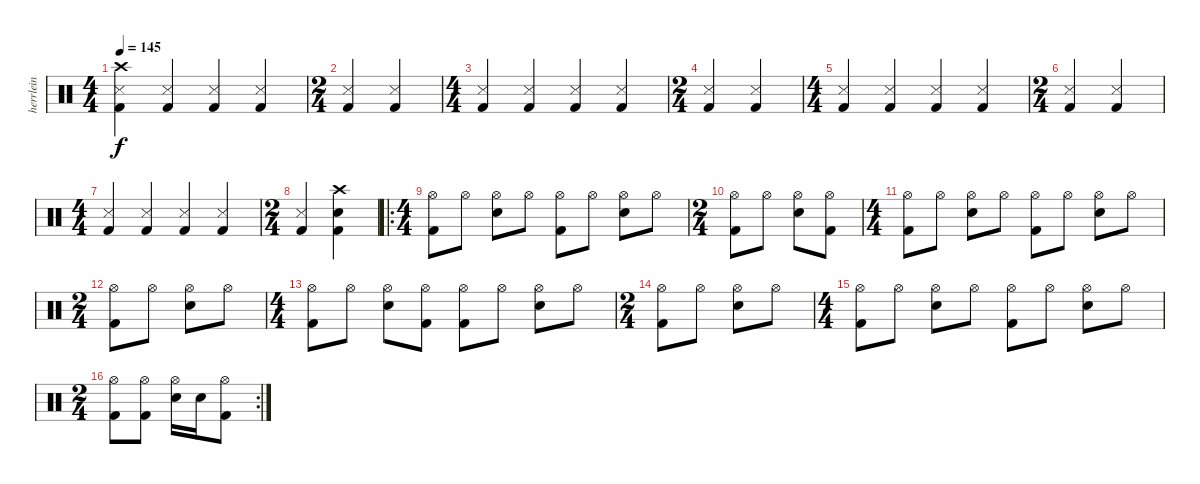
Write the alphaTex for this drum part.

\track ("herrlein" "herrlein") {instrument percussion}
\staff {score}
\articulation defaults
\ts (4 4)
\tempo 145
\clef neutral
\ks c
("Crash high (hit)" "Snare (side stick) 3" "Kick (hit) 2").4{dy f} ("Snare (side stick) 3" "Kick (hit) 2").4 ("Snare (side stick) 3" "Kick (hit) 2").4 ("Snare (side stick) 3" "Kick (hit) 2").4 |
\ts (2 4)
("Snare (side stick) 3" "Kick (hit) 2").4 ("Snare (side stick) 3" "Kick (hit) 2").4 |
\ts (4 4)
("Snare (side stick) 3" "Kick (hit) 2").4 ("Snare (side stick) 3" "Kick (hit) 2").4 ("Snare (side stick) 3" "Kick (hit) 2").4 ("Snare (side stick) 3" "Kick (hit) 2").4 |
\ts (2 4)
("Snare (side stick) 3" "Kick (hit) 2").4 ("Snare (side stick) 3" "Kick (hit) 2").4 |
\ts (4 4)
("Snare (side stick) 3" "Kick (hit) 2").4 ("Snare (side stick) 3" "Kick (hit) 2").4 ("Snare (side stick) 3" "Kick (hit) 2").4 ("Snare (side stick) 3" "Kick (hit) 2").4 |
\ts (2 4)
("Snare (side stick) 3" "Kick (hit) 2").4 ("Snare (side stick) 3" "Kick (hit) 2").4 |
\ts (4 4)
("Snare (side stick) 3" "Kick (hit) 2").4 ("Snare (side stick) 3" "Kick (hit) 2").4 ("Snare (side stick) 3" "Kick (hit) 2").4 ("Snare (side stick) 3" "Kick (hit) 2").4 |
\ts (2 4)
("Snare (side stick) 3" "Kick (hit) 2").4 ("Crash high (hit)" "Snare (hit) 2" "Kick (hit) 2").4 |
\ro
\ts (4 4)
("Kick (hit) 2" "Hi-Hat (open)").8 "Hi-Hat (open)".8 ("Hi-Hat (open)" "Snare (hit) 2").8 "Hi-Hat (open)".8 ("Kick (hit) 2" "Hi-Hat (open)").8 "Hi-Hat (open)".8 ("Hi-Hat (open)" "Snare (hit) 2").8 "Hi-Hat (open)".8 |
\ts (2 4)
("Kick (hit) 2" "Hi-Hat (open)").8 "Hi-Hat (open)".8 ("Hi-Hat (open)" "Snare (hit) 2").8 ("Kick (hit) 2" "Hi-Hat (open)").8 |
\ts (4 4)
("Kick (hit) 2" "Hi-Hat (open)").8 "Hi-Hat (open)".8 ("Hi-Hat (open)" "Snare (hit) 2").8 "Hi-Hat (open)".8 ("Kick (hit) 2" "Hi-Hat (open)").8 "Hi-Hat (open)".8 ("Hi-Hat (open)" "Snare (hit) 2").8 "Hi-Hat (open)".8 |
\ts (2 4)
("Kick (hit) 2" "Hi-Hat (open)").8 "Hi-Hat (open)".8 ("Hi-Hat (open)" "Snare (hit) 2").8 "Hi-Hat (open)".8 |
\ts (4 4)
("Kick (hit) 2" "Hi-Hat (open)").8 "Hi-Hat (open)".8 ("Hi-Hat (open)" "Snare (hit) 2").8 ("Kick (hit) 2" "Hi-Hat (open)").8 ("Kick (hit) 2" "Hi-Hat (open)").8 "Hi-Hat (open)".8 ("Hi-Hat (open)" "Snare (hit) 2").8 "Hi-Hat (open)".8 |
\ts (2 4)
("Kick (hit) 2" "Hi-Hat (open)").8 "Hi-Hat (open)".8 ("Hi-Hat (open)" "Snare (hit) 2").8 "Hi-Hat (open)".8 |
\ts (4 4)
("Kick (hit) 2" "Hi-Hat (open)").8 "Hi-Hat (open)".8 ("Hi-Hat (open)" "Snare (hit) 2").8 "Hi-Hat (open)".8 ("Kick (hit) 2" "Hi-Hat (open)").8 "Hi-Hat (open)".8 ("Hi-Hat (open)" "Snare (hit) 2").8 "Hi-Hat (open)".8 |
\rc 2
\ts (2 4)
("Kick (hit) 2" "Hi-Hat (open)").8 ("Kick (hit) 2" "Hi-Hat (open)").8 ("Hi-Hat (open)" "Snare (hit) 2").16 "Snare (hit) 2".16 ("Kick (hit) 2" "Hi-Hat (open)").8
